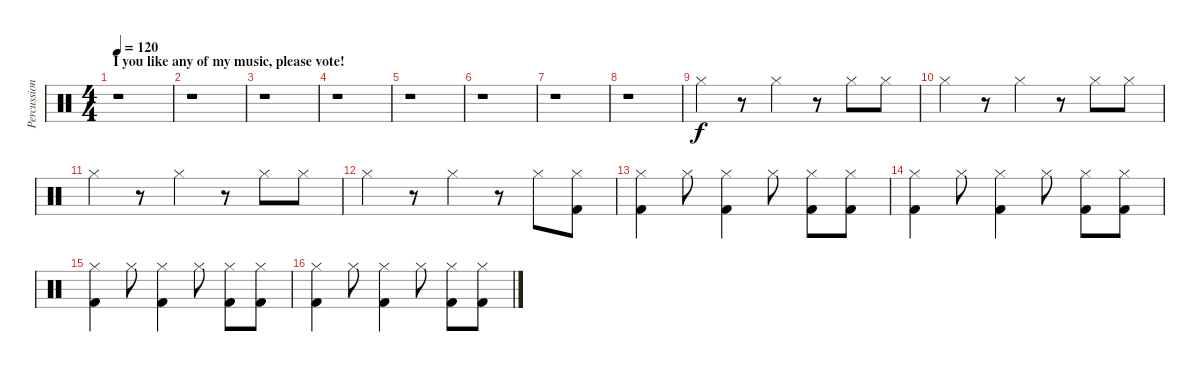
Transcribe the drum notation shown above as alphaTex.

\track ("Percussion" "Percussion") {instrument percussion}
\staff {score}
\articulation defaults
\ts (4 4)
\section ("" "I you like any of my music, please vote!")
\tempo 120
\clef neutral
\ks c
r.1{dy f} |
r.1 |
r.1 |
r.1 |
r.1 |
r.1 |
r.1 |
r.1 |
"Hi-Hat (closed)".4 r.8 "Hi-Hat (closed)".4 r.8 "Hi-Hat (closed)".8 "Hi-Hat (closed)".8 |
"Hi-Hat (closed)".4 r.8 "Hi-Hat (closed)".4 r.8 "Hi-Hat (closed)".8 "Hi-Hat (closed)".8 |
"Hi-Hat (closed)".4 r.8 "Hi-Hat (closed)".4 r.8 "Hi-Hat (closed)".8 "Hi-Hat (closed)".8 |
"Hi-Hat (closed)".4 r.8 "Hi-Hat (closed)".4 r.8 "Hi-Hat (closed)".8 ("Hi-Hat (closed)" "Kick (hit) 2").8 |
("Hi-Hat (closed)" "Kick (hit) 2").4 "Hi-Hat (closed)".8 ("Hi-Hat (closed)" "Kick (hit) 2").4 "Hi-Hat (closed)".8 ("Hi-Hat (closed)" "Kick (hit) 2").8 ("Hi-Hat (closed)" "Kick (hit) 2").8 |
("Hi-Hat (closed)" "Kick (hit) 2").4 "Hi-Hat (closed)".8 ("Hi-Hat (closed)" "Kick (hit) 2").4 "Hi-Hat (closed)".8 ("Hi-Hat (closed)" "Kick (hit) 2").8 ("Hi-Hat (closed)" "Kick (hit) 2").8 |
("Hi-Hat (closed)" "Kick (hit) 2").4 "Hi-Hat (closed)".8 ("Hi-Hat (closed)" "Kick (hit) 2").4 "Hi-Hat (closed)".8 ("Hi-Hat (closed)" "Kick (hit) 2").8 ("Hi-Hat (closed)" "Kick (hit) 2").8 |
("Hi-Hat (closed)" "Kick (hit) 2").4 "Hi-Hat (closed)".8 ("Hi-Hat (closed)" "Kick (hit) 2").4 "Hi-Hat (closed)".8 ("Hi-Hat (closed)" "Kick (hit) 2").8 ("Hi-Hat (closed)" "Kick (hit) 2").8
